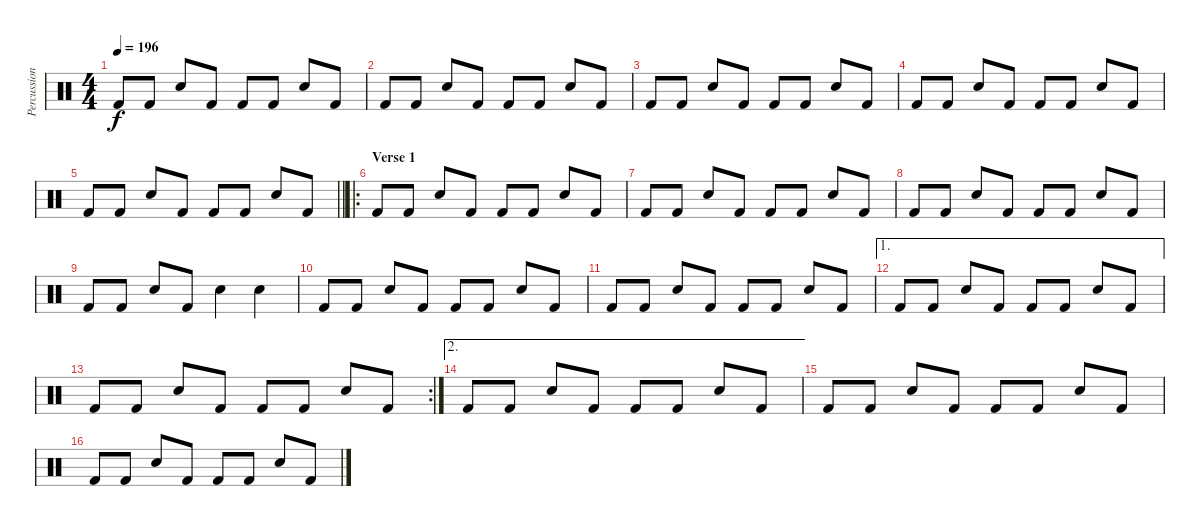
\track ("Percussion" "Percussion") {instrument percussion}
\staff {score}
\articulation defaults
\ts (4 4)
\tempo 196
\clef neutral
\ks c "Kick (hit) 2".8{dy f} "Kick (hit) 2".8 "Electric Snare (hit)".8 "Kick (hit) 2".8 "Kick (hit) 2".8 "Kick (hit) 2".8 "Electric Snare (hit)".8 "Kick (hit) 2".8
|
"Kick (hit) 2".8 "Kick (hit) 2".8 "Electric Snare (hit)".8 "Kick (hit) 2".8 "Kick (hit) 2".8 "Kick (hit) 2".8 "Electric Snare (hit)".8 "Kick (hit) 2".8 |
"Kick (hit) 2".8 "Kick (hit) 2".8 "Electric Snare (hit)".8 "Kick (hit) 2".8 "Kick (hit) 2".8 "Kick (hit) 2".8 "Electric Snare (hit)".8 "Kick (hit) 2".8 |
"Kick (hit) 2".8 "Kick (hit) 2".8 "Electric Snare (hit)".8 "Kick (hit) 2".8 "Kick (hit) 2".8 "Kick (hit) 2".8 "Electric Snare (hit)".8 "Kick (hit) 2".8 |
\barLineRight lightlight "Kick (hit) 2".8 "Kick (hit) 2".8 "Electric Snare (hit)".8 "Kick (hit) 2".8 "Kick (hit) 2".8 "Kick (hit) 2".8 "Electric Snare (hit)".8 "Kick (hit) 2".8
|
\ro
\section ("" "Verse 1")
"Kick (hit) 2".8 "Kick (hit) 2".8 "Electric Snare (hit)".8 "Kick (hit) 2".8 "Kick (hit) 2".8 "Kick (hit) 2".8 "Electric Snare (hit)".8 "Kick (hit) 2".8 |
"Kick (hit) 2".8 "Kick (hit) 2".8 "Electric Snare (hit)".8 "Kick (hit) 2".8 "Kick (hit) 2".8 "Kick (hit) 2".8 "Electric Snare (hit)".8 "Kick (hit) 2".8 |
"Kick (hit) 2".8 "Kick (hit) 2".8 "Electric Snare (hit)".8 "Kick (hit) 2".8 "Kick (hit) 2".8 "Kick (hit) 2".8 "Electric Snare (hit)".8 "Kick (hit) 2".8 |
"Kick (hit) 2".8 "Kick (hit) 2".8 "Electric Snare (hit)".8 "Kick (hit) 2".8 "Electric Snare (hit)".4 "Electric Snare (hit)".4 |
"Kick (hit) 2".8 "Kick (hit) 2".8 "Electric Snare (hit)".8 "Kick (hit) 2".8 "Kick (hit) 2".8 "Kick (hit) 2".8 "Electric Snare (hit)".8 "Kick (hit) 2".8 |
"Kick (hit) 2".8 "Kick (hit) 2".8 "Electric Snare (hit)".8 "Kick (hit) 2".8 "Kick (hit) 2".8 "Kick (hit) 2".8 "Electric Snare (hit)".8 "Kick (hit) 2".8 |
\ae 1 "Kick (hit) 2".8 "Kick (hit) 2".8 "Electric Snare (hit)".8 "Kick (hit) 2".8 "Kick (hit) 2".8 "Kick (hit) 2".8 "Electric Snare (hit)".8 "Kick (hit) 2".8
|
\rc 2 "Kick (hit) 2".8 "Kick (hit) 2".8 "Electric Snare (hit)".8 "Kick (hit) 2".8 "Kick (hit) 2".8 "Kick (hit) 2".8 "Electric Snare (hit)".8 "Kick (hit) 2".8
|
\ae 2 "Kick (hit) 2".8 "Kick (hit) 2".8 "Electric Snare (hit)".8 "Kick (hit) 2".8 "Kick (hit) 2".8 "Kick (hit) 2".8 "Electric Snare (hit)".8 "Kick (hit) 2".8
|
"Kick (hit) 2".8 "Kick (hit) 2".8 "Electric Snare (hit)".8 "Kick (hit) 2".8 "Kick (hit) 2".8 "Kick (hit) 2".8 "Electric Snare (hit)".8 "Kick (hit) 2".8 |
"Kick (hit) 2".8 "Kick (hit) 2".8 "Electric Snare (hit)".8 "Kick (hit) 2".8 "Kick (hit) 2".8 "Kick (hit) 2".8 "Electric Snare (hit)".8 "Kick (hit) 2".8
